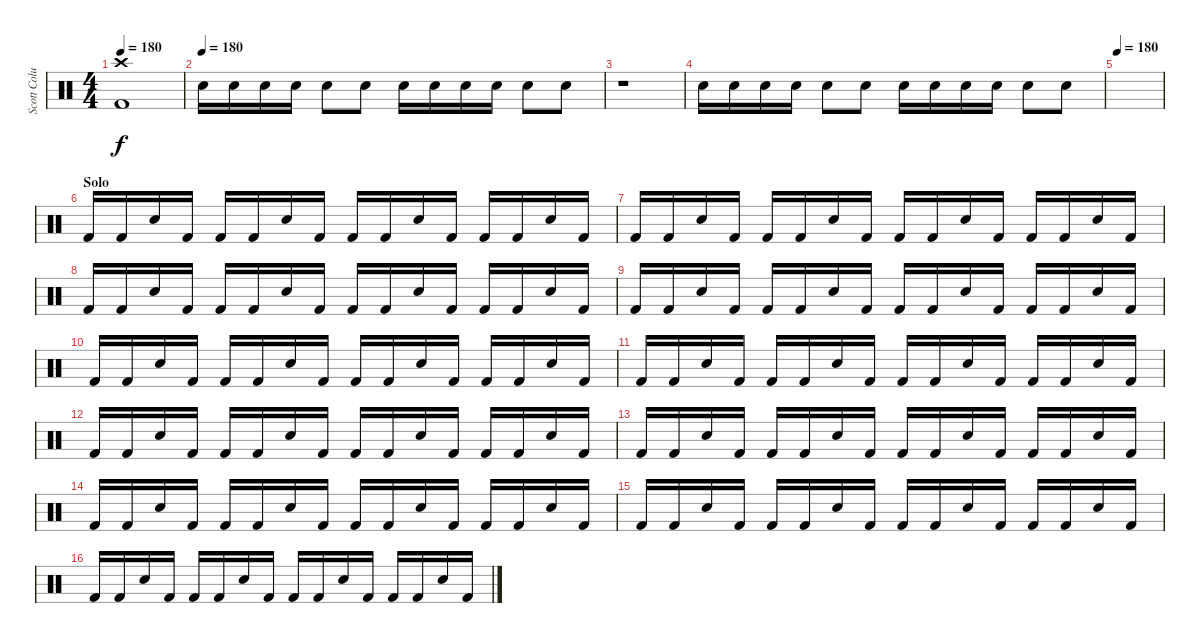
\track ("Scott Columbus" "Scott Colu") {instrument percussion}
\staff {score}
\articulation defaults
\ts (4 4)
\tempo 180
\clef neutral
\ks c
("Crash high (hit)" "Kick (hit) 2").1{dy f} |
\tempo (180)
"Snare (hit) 2".16 "Snare (hit) 2".16 "Snare (hit) 2".16 "Snare (hit) 2".16 "Snare (hit) 2".8 "Snare (hit) 2".8 "Snare (hit) 2".16 "Snare (hit) 2".16 "Snare (hit) 2".16 "Snare (hit) 2".16 "Snare (hit) 2".8 "Snare (hit) 2".8 |
r.1 |
"Snare (hit) 2".16 "Snare (hit) 2".16 "Snare (hit) 2".16 "Snare (hit) 2".16 "Snare (hit) 2".8 "Snare (hit) 2".8 "Snare (hit) 2".16 "Snare (hit) 2".16 "Snare (hit) 2".16 "Snare (hit) 2".16 "Snare (hit) 2".8 "Snare (hit) 2".8 |
\tempo 180
|
\section ("" "Solo")
"Kick (hit) 2".16 "Kick (hit) 2".16 "Snare (hit) 2".16 "Kick (hit) 2".16 "Kick (hit) 2".16 "Kick (hit) 2".16 "Snare (hit) 2".16 "Kick (hit) 2".16 "Kick (hit) 2".16 "Kick (hit) 2".16 "Snare (hit) 2".16 "Kick (hit) 2".16 "Kick (hit) 2".16 "Kick (hit) 2".16 "Snare (hit) 2".16 "Kick (hit) 2".16 |
"Kick (hit) 2".16 "Kick (hit) 2".16 "Snare (hit) 2".16 "Kick (hit) 2".16 "Kick (hit) 2".16 "Kick (hit) 2".16 "Snare (hit) 2".16 "Kick (hit) 2".16 "Kick (hit) 2".16 "Kick (hit) 2".16 "Snare (hit) 2".16 "Kick (hit) 2".16 "Kick (hit) 2".16 "Kick (hit) 2".16 "Snare (hit) 2".16 "Kick (hit) 2".16 |
"Kick (hit) 2".16 "Kick (hit) 2".16 "Snare (hit) 2".16 "Kick (hit) 2".16 "Kick (hit) 2".16 "Kick (hit) 2".16 "Snare (hit) 2".16 "Kick (hit) 2".16 "Kick (hit) 2".16 "Kick (hit) 2".16 "Snare (hit) 2".16 "Kick (hit) 2".16 "Kick (hit) 2".16 "Kick (hit) 2".16 "Snare (hit) 2".16 "Kick (hit) 2".16 |
"Kick (hit) 2".16 "Kick (hit) 2".16 "Snare (hit) 2".16 "Kick (hit) 2".16 "Kick (hit) 2".16 "Kick (hit) 2".16 "Snare (hit) 2".16 "Kick (hit) 2".16 "Kick (hit) 2".16 "Kick (hit) 2".16 "Snare (hit) 2".16 "Kick (hit) 2".16 "Kick (hit) 2".16 "Kick (hit) 2".16 "Snare (hit) 2".16 "Kick (hit) 2".16 |
"Kick (hit) 2".16 "Kick (hit) 2".16 "Snare (hit) 2".16 "Kick (hit) 2".16 "Kick (hit) 2".16 "Kick (hit) 2".16 "Snare (hit) 2".16 "Kick (hit) 2".16 "Kick (hit) 2".16 "Kick (hit) 2".16 "Snare (hit) 2".16 "Kick (hit) 2".16 "Kick (hit) 2".16 "Kick (hit) 2".16 "Snare (hit) 2".16 "Kick (hit) 2".16 |
"Kick (hit) 2".16 "Kick (hit) 2".16 "Snare (hit) 2".16 "Kick (hit) 2".16 "Kick (hit) 2".16 "Kick (hit) 2".16 "Snare (hit) 2".16 "Kick (hit) 2".16 "Kick (hit) 2".16 "Kick (hit) 2".16 "Snare (hit) 2".16 "Kick (hit) 2".16 "Kick (hit) 2".16 "Kick (hit) 2".16 "Snare (hit) 2".16 "Kick (hit) 2".16 |
"Kick (hit) 2".16 "Kick (hit) 2".16 "Snare (hit) 2".16 "Kick (hit) 2".16 "Kick (hit) 2".16 "Kick (hit) 2".16 "Snare (hit) 2".16 "Kick (hit) 2".16 "Kick (hit) 2".16 "Kick (hit) 2".16 "Snare (hit) 2".16 "Kick (hit) 2".16 "Kick (hit) 2".16 "Kick (hit) 2".16 "Snare (hit) 2".16 "Kick (hit) 2".16 |
"Kick (hit) 2".16 "Kick (hit) 2".16 "Snare (hit) 2".16 "Kick (hit) 2".16 "Kick (hit) 2".16 "Kick (hit) 2".16 "Snare (hit) 2".16 "Kick (hit) 2".16 "Kick (hit) 2".16 "Kick (hit) 2".16 "Snare (hit) 2".16 "Kick (hit) 2".16 "Kick (hit) 2".16 "Kick (hit) 2".16 "Snare (hit) 2".16 "Kick (hit) 2".16 |
"Kick (hit) 2".16 "Kick (hit) 2".16 "Snare (hit) 2".16 "Kick (hit) 2".16 "Kick (hit) 2".16 "Kick (hit) 2".16 "Snare (hit) 2".16 "Kick (hit) 2".16 "Kick (hit) 2".16 "Kick (hit) 2".16 "Snare (hit) 2".16 "Kick (hit) 2".16 "Kick (hit) 2".16 "Kick (hit) 2".16 "Snare (hit) 2".16 "Kick (hit) 2".16 |
"Kick (hit) 2".16 "Kick (hit) 2".16 "Snare (hit) 2".16 "Kick (hit) 2".16 "Kick (hit) 2".16 "Kick (hit) 2".16 "Snare (hit) 2".16 "Kick (hit) 2".16 "Kick (hit) 2".16 "Kick (hit) 2".16 "Snare (hit) 2".16 "Kick (hit) 2".16 "Kick (hit) 2".16 "Kick (hit) 2".16 "Snare (hit) 2".16 "Kick (hit) 2".16 |
"Kick (hit) 2".16 "Kick (hit) 2".16 "Snare (hit) 2".16 "Kick (hit) 2".16 "Kick (hit) 2".16 "Kick (hit) 2".16 "Snare (hit) 2".16 "Kick (hit) 2".16 "Kick (hit) 2".16 "Kick (hit) 2".16 "Snare (hit) 2".16 "Kick (hit) 2".16 "Kick (hit) 2".16 "Kick (hit) 2".16 "Snare (hit) 2".16 "Kick (hit) 2".16
